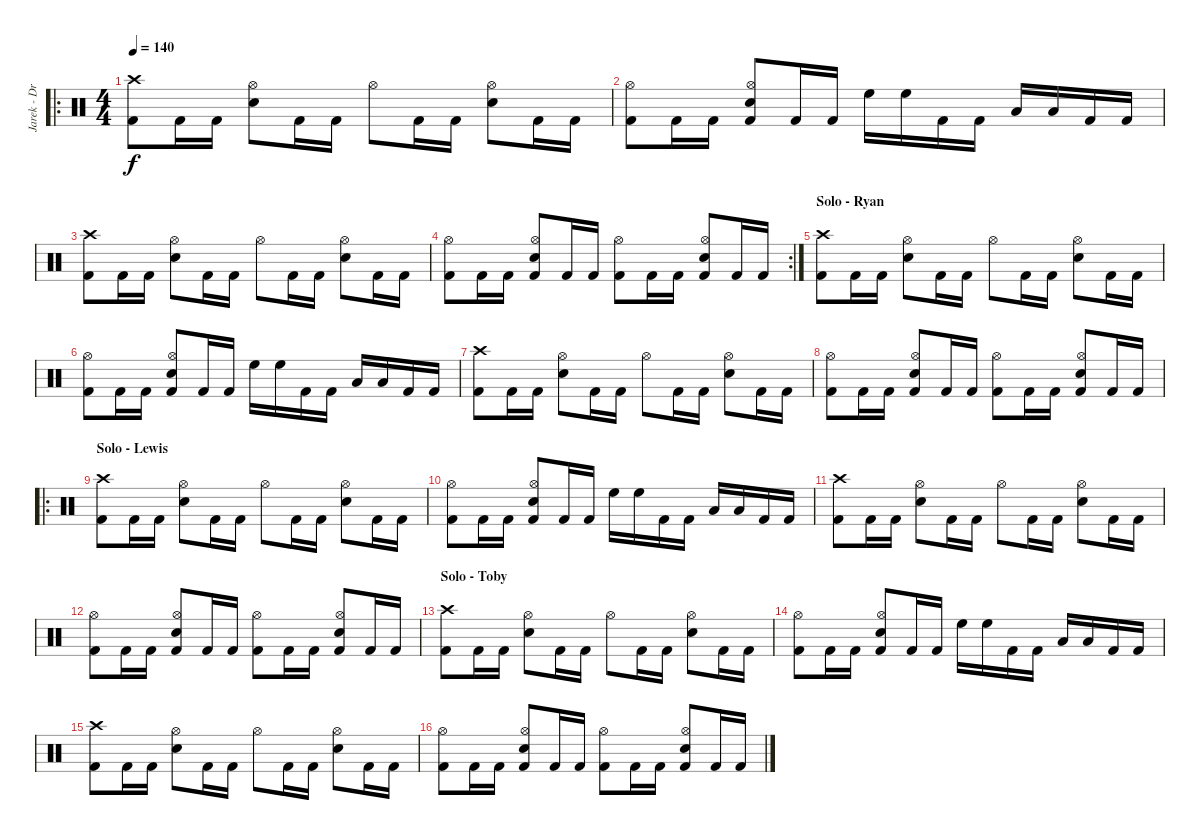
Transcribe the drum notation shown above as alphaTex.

\track ("Jarek - Drums" "Jarek - Dr") {instrument percussion}
\staff {score}
\articulation defaults
\ro
\ts (4 4)
\tempo 140
\clef neutral
\ks c
("Crash high (hit)" "Kick (hit) 2").8{dy f} "Kick (hit) 2".16 "Kick (hit) 2".16 ("Hi-Hat (open)" "Snare (hit) 2").8 "Kick (hit) 2".16 "Kick (hit) 2".16 "Hi-Hat (open)".8 "Kick (hit) 2".16 "Kick (hit) 2".16 ("Hi-Hat (open)" "Snare (hit) 2").8 "Kick (hit) 2".16 "Kick (hit) 2".16 |
("Hi-Hat (open)" "Kick (hit) 2").8 "Kick (hit) 2".16 "Kick (hit) 2".16 ("Hi-Hat (open)" "Snare (hit) 2" "Kick (hit) 2").8 "Kick (hit) 2".16 "Kick (hit) 2".16 "High Floor Tom (hit)".16 "High Floor Tom (hit)".16 "Kick (hit) 2".16 "Kick (hit) 2".16 "Low Tom (hit)".16 "Low Tom (hit)".16 "Kick (hit) 2".16 "Kick (hit) 2".16 |
("Crash high (hit)" "Kick (hit) 2").8 "Kick (hit) 2".16 "Kick (hit) 2".16 ("Hi-Hat (open)" "Snare (hit) 2").8 "Kick (hit) 2".16 "Kick (hit) 2".16 "Hi-Hat (open)".8 "Kick (hit) 2".16 "Kick (hit) 2".16 ("Hi-Hat (open)" "Snare (hit) 2").8 "Kick (hit) 2".16 "Kick (hit) 2".16 |
\rc 2
("Hi-Hat (open)" "Kick (hit) 2").8 "Kick (hit) 2".16 "Kick (hit) 2".16 ("Hi-Hat (open)" "Snare (hit) 2" "Kick (hit) 2").8 "Kick (hit) 2".16 "Kick (hit) 2".16 ("Hi-Hat (open)" "Kick (hit) 2").8 "Kick (hit) 2".16 "Kick (hit) 2".16 ("Hi-Hat (open)" "Snare (hit) 2" "Kick (hit) 2").8 "Kick (hit) 2".16 "Kick (hit) 2".16 |
\section ("" "Solo - Ryan")
("Crash high (hit)" "Kick (hit) 2").8 "Kick (hit) 2".16 "Kick (hit) 2".16 ("Hi-Hat (open)" "Snare (hit) 2").8 "Kick (hit) 2".16 "Kick (hit) 2".16 "Hi-Hat (open)".8 "Kick (hit) 2".16 "Kick (hit) 2".16 ("Hi-Hat (open)" "Snare (hit) 2").8 "Kick (hit) 2".16 "Kick (hit) 2".16 |
("Hi-Hat (open)" "Kick (hit) 2").8 "Kick (hit) 2".16 "Kick (hit) 2".16 ("Hi-Hat (open)" "Snare (hit) 2" "Kick (hit) 2").8 "Kick (hit) 2".16 "Kick (hit) 2".16 "High Floor Tom (hit)".16 "High Floor Tom (hit)".16 "Kick (hit) 2".16 "Kick (hit) 2".16 "Low Tom (hit)".16 "Low Tom (hit)".16 "Kick (hit) 2".16 "Kick (hit) 2".16 |
("Crash high (hit)" "Kick (hit) 2").8 "Kick (hit) 2".16 "Kick (hit) 2".16 ("Hi-Hat (open)" "Snare (hit) 2").8 "Kick (hit) 2".16 "Kick (hit) 2".16 "Hi-Hat (open)".8 "Kick (hit) 2".16 "Kick (hit) 2".16 ("Hi-Hat (open)" "Snare (hit) 2").8 "Kick (hit) 2".16 "Kick (hit) 2".16 |
("Hi-Hat (open)" "Kick (hit) 2").8 "Kick (hit) 2".16 "Kick (hit) 2".16 ("Hi-Hat (open)" "Snare (hit) 2" "Kick (hit) 2").8 "Kick (hit) 2".16 "Kick (hit) 2".16 ("Hi-Hat (open)" "Kick (hit) 2").8 "Kick (hit) 2".16 "Kick (hit) 2".16 ("Hi-Hat (open)" "Snare (hit) 2" "Kick (hit) 2").8 "Kick (hit) 2".16 "Kick (hit) 2".16 |
\ro
\section ("" "Solo - Lewis")
("Crash high (hit)" "Kick (hit) 2").8 "Kick (hit) 2".16 "Kick (hit) 2".16 ("Hi-Hat (open)" "Snare (hit) 2").8 "Kick (hit) 2".16 "Kick (hit) 2".16 "Hi-Hat (open)".8 "Kick (hit) 2".16 "Kick (hit) 2".16 ("Hi-Hat (open)" "Snare (hit) 2").8 "Kick (hit) 2".16 "Kick (hit) 2".16 |
("Hi-Hat (open)" "Kick (hit) 2").8 "Kick (hit) 2".16 "Kick (hit) 2".16 ("Hi-Hat (open)" "Snare (hit) 2" "Kick (hit) 2").8 "Kick (hit) 2".16 "Kick (hit) 2".16 "High Floor Tom (hit)".16 "High Floor Tom (hit)".16 "Kick (hit) 2".16 "Kick (hit) 2".16 "Low Tom (hit)".16 "Low Tom (hit)".16 "Kick (hit) 2".16 "Kick (hit) 2".16 |
("Crash high (hit)" "Kick (hit) 2").8 "Kick (hit) 2".16 "Kick (hit) 2".16 ("Hi-Hat (open)" "Snare (hit) 2").8 "Kick (hit) 2".16 "Kick (hit) 2".16 "Hi-Hat (open)".8 "Kick (hit) 2".16 "Kick (hit) 2".16 ("Hi-Hat (open)" "Snare (hit) 2").8 "Kick (hit) 2".16 "Kick (hit) 2".16 |
("Hi-Hat (open)" "Kick (hit) 2").8 "Kick (hit) 2".16 "Kick (hit) 2".16 ("Hi-Hat (open)" "Snare (hit) 2" "Kick (hit) 2").8 "Kick (hit) 2".16 "Kick (hit) 2".16 ("Hi-Hat (open)" "Kick (hit) 2").8 "Kick (hit) 2".16 "Kick (hit) 2".16 ("Hi-Hat (open)" "Snare (hit) 2" "Kick (hit) 2").8 "Kick (hit) 2".16 "Kick (hit) 2".16 |
\section ("" "Solo - Toby")
("Crash high (hit)" "Kick (hit) 2").8 "Kick (hit) 2".16 "Kick (hit) 2".16 ("Hi-Hat (open)" "Snare (hit) 2").8 "Kick (hit) 2".16 "Kick (hit) 2".16 "Hi-Hat (open)".8 "Kick (hit) 2".16 "Kick (hit) 2".16 ("Hi-Hat (open)" "Snare (hit) 2").8 "Kick (hit) 2".16 "Kick (hit) 2".16 |
("Hi-Hat (open)" "Kick (hit) 2").8 "Kick (hit) 2".16 "Kick (hit) 2".16 ("Hi-Hat (open)" "Snare (hit) 2" "Kick (hit) 2").8 "Kick (hit) 2".16 "Kick (hit) 2".16 "High Floor Tom (hit)".16 "High Floor Tom (hit)".16 "Kick (hit) 2".16 "Kick (hit) 2".16 "Low Tom (hit)".16 "Low Tom (hit)".16 "Kick (hit) 2".16 "Kick (hit) 2".16 |
("Crash high (hit)" "Kick (hit) 2").8 "Kick (hit) 2".16 "Kick (hit) 2".16 ("Hi-Hat (open)" "Snare (hit) 2").8 "Kick (hit) 2".16 "Kick (hit) 2".16 "Hi-Hat (open)".8 "Kick (hit) 2".16 "Kick (hit) 2".16 ("Hi-Hat (open)" "Snare (hit) 2").8 "Kick (hit) 2".16 "Kick (hit) 2".16 |
("Hi-Hat (open)" "Kick (hit) 2").8 "Kick (hit) 2".16 "Kick (hit) 2".16 ("Hi-Hat (open)" "Snare (hit) 2" "Kick (hit) 2").8 "Kick (hit) 2".16 "Kick (hit) 2".16 ("Hi-Hat (open)" "Kick (hit) 2").8 "Kick (hit) 2".16 "Kick (hit) 2".16 ("Hi-Hat (open)" "Snare (hit) 2" "Kick (hit) 2").8 "Kick (hit) 2".16 "Kick (hit) 2".16
